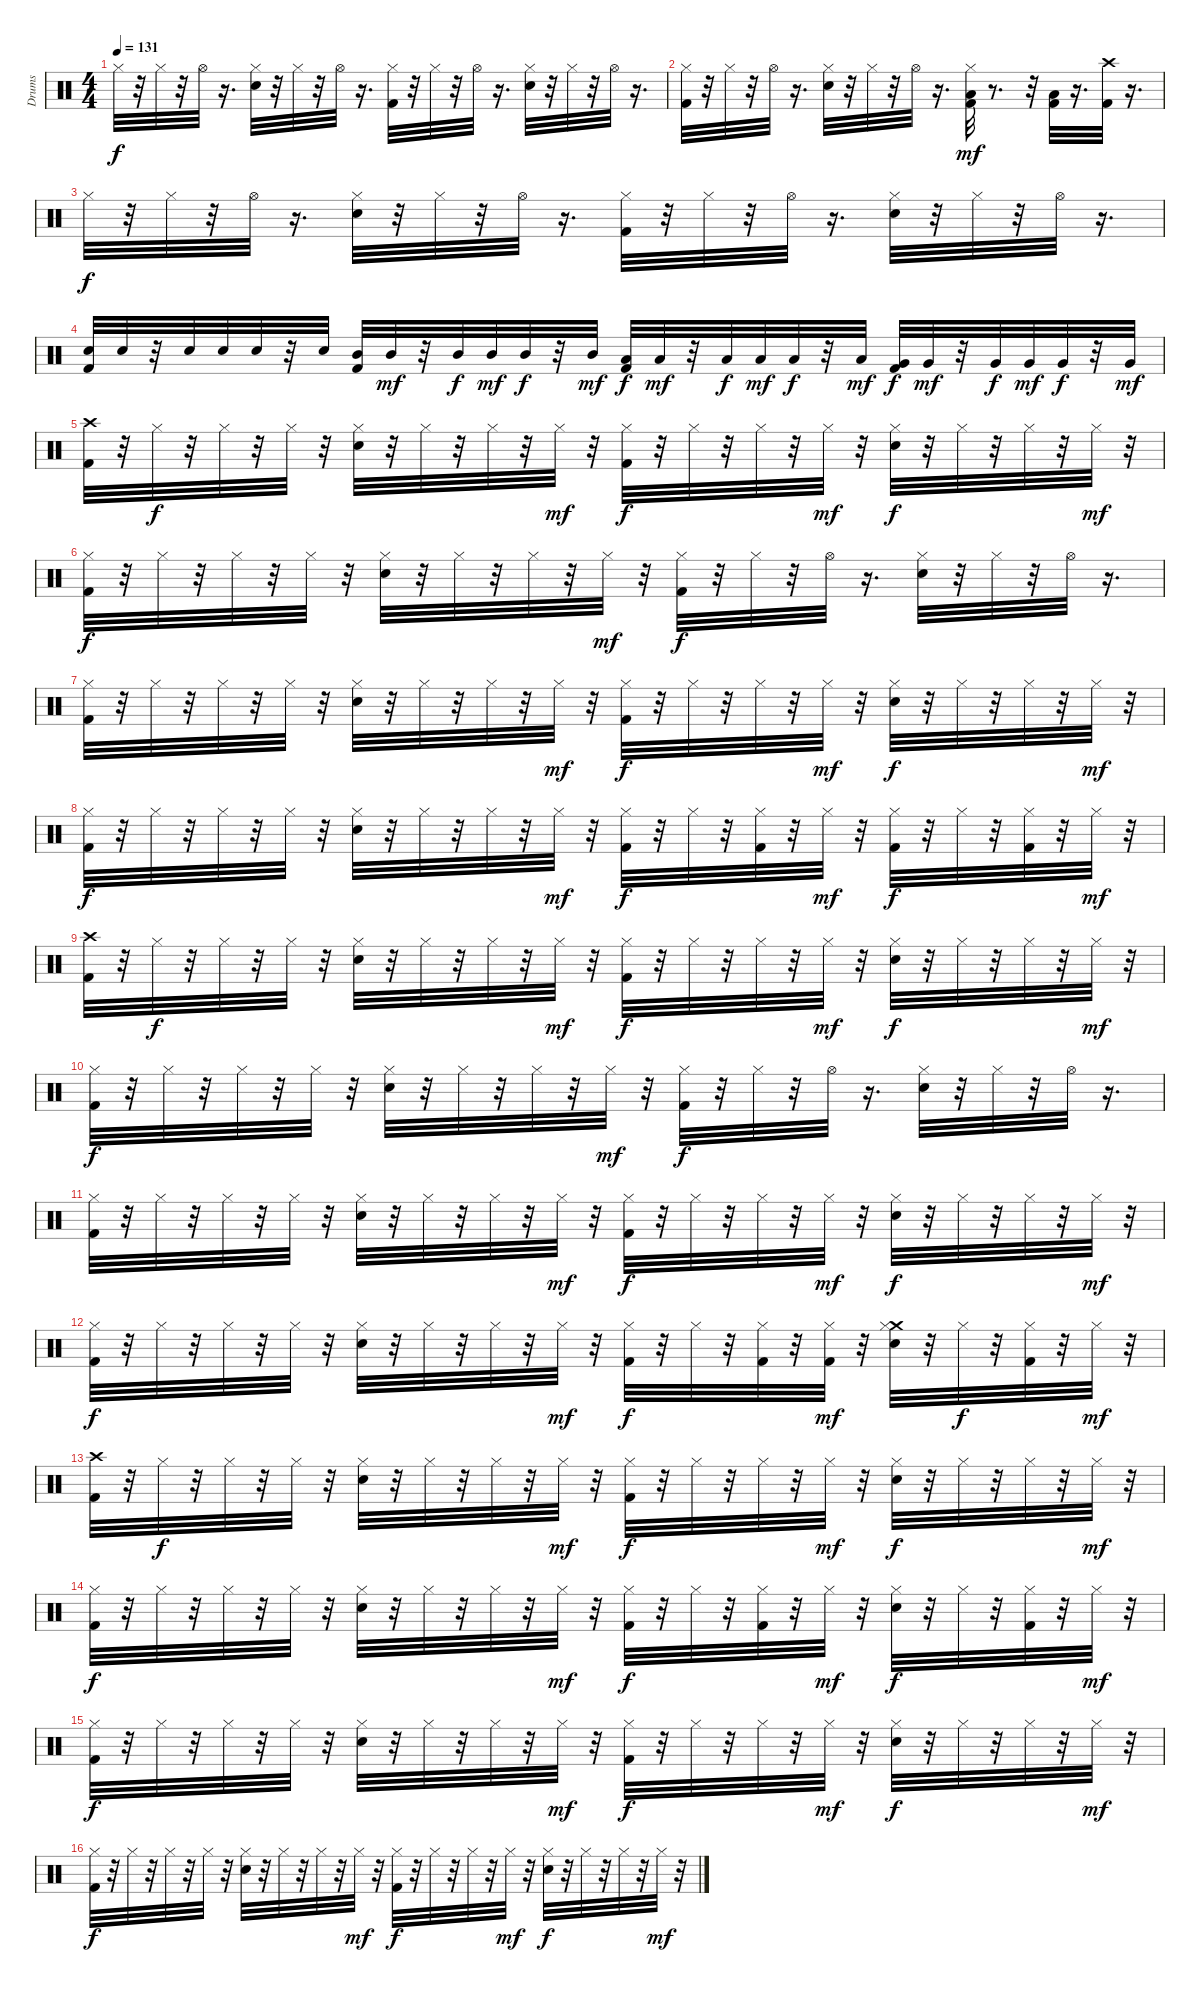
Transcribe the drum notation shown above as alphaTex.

\track ("Drums" "Drums") {instrument percussion}
\staff {score}
\articulation defaults
\ts (4 4)
\tempo 131
\clef neutral
\ks c "Hi-Hat (closed)".32{dy f}
r.32 "Hi-Hat (closed)".32 r.32 "Hi-Hat (open)".32 r.16{d} ("Hi-Hat (closed)" "Snare (hit) 2").32 r.32 "Hi-Hat (closed)".32 r.32 "Hi-Hat (open)".32 r.16{d} ("Hi-Hat (closed)" "Kick (hit) 2").32 r.32 "Hi-Hat (closed)".32 r.32 "Hi-Hat (open)".32 r.16{d} ("Snare (hit) 2" "Hi-Hat (closed)").32 r.32 "Hi-Hat (closed)".32 r.32 "Hi-Hat (open)".32 r.16{d} |
("Kick (hit) 2" "Hi-Hat (closed)").32 r.32 "Hi-Hat (closed)".32 r.32 "Hi-Hat (open)".32 r.16{d} ("Snare (hit) 2" "Hi-Hat (closed)").32 r.32 "Hi-Hat (closed)".32 r.32 "Hi-Hat (open)".32 r.16{d} ("Low Floor Tom (hit)" "Kick (hit) 2" "Hi-Hat (closed)").32{dy mf} r.8{d} r.32 ("Low Floor Tom (hit)" "Kick (hit) 2").32 r.16{d} ("Kick (hit) 2" "Crash high (hit)").32 r.16{d} |
"Hi-Hat (closed)".32{dy f} r.32 "Hi-Hat (closed)".32 r.32 "Hi-Hat (open)".32 r.16{d} ("Hi-Hat (closed)" "Snare (hit) 2").32 r.32 "Hi-Hat (closed)".32 r.32 "Hi-Hat (open)".32 r.16{d} ("Hi-Hat (closed)" "Kick (hit) 2").32 r.32 "Hi-Hat (closed)".32 r.32 "Hi-Hat (open)".32 r.16{d} ("Snare (hit) 2" "Hi-Hat (closed)").32 r.32 "Hi-Hat (closed)".32 r.32 "Hi-Hat (open)".32 r.16{d} |
("Snare (hit) 2" "Kick (hit) 2").32 "Snare (hit) 2".32 r.32 "Snare (hit) 2".32 "Snare (hit) 2".32 "Snare (hit) 2".32 r.32 "Snare (hit) 2".32 ("Kick (hit) 2" "Mid Tom (hit)").32 "Mid Tom (hit)".32{dy mf} r.32 "Mid Tom (hit)".32{dy f} "Mid Tom (hit)".32{dy mf} "Mid Tom (hit)".32{dy f} r.32 "Mid Tom (hit)".32{dy mf} ("Kick (hit) 2" "Low Tom (hit)").32{dy f} "Low Tom (hit)".32{dy mf} r.32 "Low Tom (hit)".32{dy f} "Low Tom (hit)".32{dy mf} "Low Tom (hit)".32{dy f} r.32 "Low Tom (hit)".32{dy mf} ("Kick (hit) 2" "Very Low Tom (hit)").32{dy f} "Very Low Tom (hit)".32{dy mf} r.32 "Very Low Tom (hit)".32{dy f} "Very Low Tom (hit)".32{dy mf} "Very Low Tom (hit)".32{dy f} r.32 "Very Low Tom (hit)".32{dy mf} |
("Crash high (hit)" "Kick (hit) 2").32 r.32 "Hi-Hat (closed)".32{dy f} r.32 "Hi-Hat (closed)".32 r.32 "Hi-Hat (closed)".32 r.32 ("Hi-Hat (closed)" "Snare (hit) 2").32 r.32 "Hi-Hat (closed)".32 r.32 "Hi-Hat (closed)".32 r.32 "Hi-Hat (closed)".32{dy mf} r.32 ("Hi-Hat (closed)" "Kick (hit) 2").32{dy f} r.32 "Hi-Hat (closed)".32 r.32 "Hi-Hat (closed)".32 r.32 "Hi-Hat (closed)".32{dy mf} r.32 ("Hi-Hat (closed)" "Snare (hit) 2").32{dy f} r.32 "Hi-Hat (closed)".32 r.32 "Hi-Hat (closed)".32 r.32 "Hi-Hat (closed)".32{dy mf} r.32 |
("Kick (hit) 2" "Hi-Hat (closed)").32{dy f} r.32 "Hi-Hat (closed)".32 r.32 "Hi-Hat (closed)".32 r.32 "Hi-Hat (closed)".32 r.32 ("Snare (hit) 2" "Hi-Hat (closed)").32 r.32 "Hi-Hat (closed)".32 r.32 "Hi-Hat (closed)".32 r.32 "Hi-Hat (closed)".32{dy mf} r.32 ("Kick (hit) 2" "Hi-Hat (closed)").32{dy f} r.32 "Hi-Hat (closed)".32 r.32 "Hi-Hat (open)".32 r.16{d} ("Snare (hit) 2" "Hi-Hat (closed)").32 r.32 "Hi-Hat (closed)".32 r.32 "Hi-Hat (open)".32 r.16{d} |
("Kick (hit) 2" "Hi-Hat (closed)").32 r.32 "Hi-Hat (closed)".32 r.32 "Hi-Hat (closed)".32 r.32 "Hi-Hat (closed)".32 r.32 ("Hi-Hat (closed)" "Snare (hit) 2").32 r.32 "Hi-Hat (closed)".32 r.32 "Hi-Hat (closed)".32 r.32 "Hi-Hat (closed)".32{dy mf} r.32 ("Hi-Hat (closed)" "Kick (hit) 2").32{dy f} r.32 "Hi-Hat (closed)".32 r.32 "Hi-Hat (closed)".32 r.32 "Hi-Hat (closed)".32{dy mf} r.32 ("Hi-Hat (closed)" "Snare (hit) 2").32{dy f} r.32 "Hi-Hat (closed)".32 r.32 "Hi-Hat (closed)".32 r.32 "Hi-Hat (closed)".32{dy mf} r.32 |
("Kick (hit) 2" "Hi-Hat (closed)").32{dy f} r.32 "Hi-Hat (closed)".32 r.32 "Hi-Hat (closed)".32 r.32 "Hi-Hat (closed)".32 r.32 ("Hi-Hat (closed)" "Snare (hit) 2").32 r.32 "Hi-Hat (closed)".32 r.32 "Hi-Hat (closed)".32 r.32 "Hi-Hat (closed)".32{dy mf} r.32 ("Hi-Hat (closed)" "Kick (hit) 2").32{dy f} r.32 "Hi-Hat (closed)".32 r.32 ("Kick (hit) 2" "Hi-Hat (closed)").32 r.32 "Hi-Hat (closed)".32{dy mf} r.32 ("Hi-Hat (closed)" "Kick (hit) 2").32{dy f} r.32 "Hi-Hat (closed)".32 r.32 ("Kick (hit) 2" "Hi-Hat (closed)").32 r.32 "Hi-Hat (closed)".32{dy mf} r.32 |
("Crash high (hit)" "Kick (hit) 2").32 r.32 "Hi-Hat (closed)".32{dy f} r.32 "Hi-Hat (closed)".32 r.32 "Hi-Hat (closed)".32 r.32 ("Hi-Hat (closed)" "Snare (hit) 2").32 r.32 "Hi-Hat (closed)".32 r.32 "Hi-Hat (closed)".32 r.32 "Hi-Hat (closed)".32{dy mf} r.32 ("Hi-Hat (closed)" "Kick (hit) 2").32{dy f} r.32 "Hi-Hat (closed)".32 r.32 "Hi-Hat (closed)".32 r.32 "Hi-Hat (closed)".32{dy mf} r.32 ("Hi-Hat (closed)" "Snare (hit) 2").32{dy f} r.32 "Hi-Hat (closed)".32 r.32 "Hi-Hat (closed)".32 r.32 "Hi-Hat (closed)".32{dy mf} r.32 |
("Kick (hit) 2" "Hi-Hat (closed)").32{dy f} r.32 "Hi-Hat (closed)".32 r.32 "Hi-Hat (closed)".32 r.32 "Hi-Hat (closed)".32 r.32 ("Snare (hit) 2" "Hi-Hat (closed)").32 r.32 "Hi-Hat (closed)".32 r.32 "Hi-Hat (closed)".32 r.32 "Hi-Hat (closed)".32{dy mf} r.32 ("Kick (hit) 2" "Hi-Hat (closed)").32{dy f} r.32 "Hi-Hat (closed)".32 r.32 "Hi-Hat (open)".32 r.16{d} ("Snare (hit) 2" "Hi-Hat (closed)").32 r.32 "Hi-Hat (closed)".32 r.32 "Hi-Hat (open)".32 r.16{d} |
("Kick (hit) 2" "Hi-Hat (closed)").32 r.32 "Hi-Hat (closed)".32 r.32 "Hi-Hat (closed)".32 r.32 "Hi-Hat (closed)".32 r.32 ("Hi-Hat (closed)" "Snare (hit) 2").32 r.32 "Hi-Hat (closed)".32 r.32 "Hi-Hat (closed)".32 r.32 "Hi-Hat (closed)".32{dy mf} r.32 ("Hi-Hat (closed)" "Kick (hit) 2").32{dy f} r.32 "Hi-Hat (closed)".32 r.32 "Hi-Hat (closed)".32 r.32 "Hi-Hat (closed)".32{dy mf} r.32 ("Hi-Hat (closed)" "Snare (hit) 2").32{dy f} r.32 "Hi-Hat (closed)".32 r.32 "Hi-Hat (closed)".32 r.32 "Hi-Hat (closed)".32{dy mf} r.32 |
("Kick (hit) 2" "Hi-Hat (closed)").32{dy f} r.32 "Hi-Hat (closed)".32 r.32 "Hi-Hat (closed)".32 r.32 "Hi-Hat (closed)".32 r.32 ("Hi-Hat (closed)" "Snare (hit) 2").32 r.32 "Hi-Hat (closed)".32 r.32 "Hi-Hat (closed)".32 r.32 "Hi-Hat (closed)".32{dy mf} r.32 ("Hi-Hat (closed)" "Kick (hit) 2").32{dy f} r.32 "Hi-Hat (closed)".32 r.32 ("Kick (hit) 2" "Hi-Hat (closed)").32 r.32 ("Kick (hit) 2" "Hi-Hat (closed)").32{dy mf} r.32 ("Crash medium (hit)" "Hi-Hat (closed)" "Snare (hit) 2").32 r.32 "Hi-Hat (closed)".32{dy f} r.32 ("Kick (hit) 2" "Hi-Hat (closed)").32 r.32 "Hi-Hat (closed)".32{dy mf} r.32 |
("Crash high (hit)" "Kick (hit) 2").32 r.32 "Hi-Hat (closed)".32{dy f} r.32 "Hi-Hat (closed)".32 r.32 "Hi-Hat (closed)".32 r.32 ("Hi-Hat (closed)" "Snare (hit) 2").32 r.32 "Hi-Hat (closed)".32 r.32 "Hi-Hat (closed)".32 r.32 "Hi-Hat (closed)".32{dy mf} r.32 ("Hi-Hat (closed)" "Kick (hit) 2").32{dy f} r.32 "Hi-Hat (closed)".32 r.32 "Hi-Hat (closed)".32 r.32 "Hi-Hat (closed)".32{dy mf} r.32 ("Hi-Hat (closed)" "Snare (hit) 2").32{dy f} r.32 "Hi-Hat (closed)".32 r.32 "Hi-Hat (closed)".32 r.32 "Hi-Hat (closed)".32{dy mf} r.32 |
("Kick (hit) 2" "Hi-Hat (closed)").32{dy f} r.32 "Hi-Hat (closed)".32 r.32 "Hi-Hat (closed)".32 r.32 "Hi-Hat (closed)".32 r.32 ("Hi-Hat (closed)" "Snare (hit) 2").32 r.32 "Hi-Hat (closed)".32 r.32 "Hi-Hat (closed)".32 r.32 "Hi-Hat (closed)".32{dy mf} r.32 ("Hi-Hat (closed)" "Kick (hit) 2").32{dy f} r.32 "Hi-Hat (closed)".32 r.32 ("Kick (hit) 2" "Hi-Hat (closed)").32 r.32 "Hi-Hat (closed)".32{dy mf} r.32 ("Hi-Hat (closed)" "Snare (hit) 2").32{dy f} r.32 "Hi-Hat (closed)".32 r.32 ("Kick (hit) 2" "Hi-Hat (closed)").32 r.32 "Hi-Hat (closed)".32{dy mf} r.32 |
("Kick (hit) 2" "Hi-Hat (closed)").32{dy f} r.32 "Hi-Hat (closed)".32 r.32 "Hi-Hat (closed)".32 r.32 "Hi-Hat (closed)".32 r.32 ("Hi-Hat (closed)" "Snare (hit) 2").32 r.32 "Hi-Hat (closed)".32 r.32 "Hi-Hat (closed)".32 r.32 "Hi-Hat (closed)".32{dy mf} r.32 ("Hi-Hat (closed)" "Kick (hit) 2").32{dy f} r.32 "Hi-Hat (closed)".32 r.32 "Hi-Hat (closed)".32 r.32 "Hi-Hat (closed)".32{dy mf} r.32 ("Hi-Hat (closed)" "Snare (hit) 2").32{dy f} r.32 "Hi-Hat (closed)".32 r.32 "Hi-Hat (closed)".32 r.32 "Hi-Hat (closed)".32{dy mf} r.32 |
("Kick (hit) 2" "Hi-Hat (closed)").32{dy f} r.32 "Hi-Hat (closed)".32 r.32 "Hi-Hat (closed)".32 r.32 "Hi-Hat (closed)".32 r.32 ("Hi-Hat (closed)" "Snare (hit) 2").32 r.32 "Hi-Hat (closed)".32 r.32 "Hi-Hat (closed)".32 r.32 "Hi-Hat (closed)".32{dy mf} r.32 ("Hi-Hat (closed)" "Kick (hit) 2").32{dy f} r.32 "Hi-Hat (closed)".32 r.32 "Hi-Hat (closed)".32 r.32 "Hi-Hat (closed)".32{dy mf} r.32 ("Hi-Hat (closed)" "Snare (hit) 2").32{dy f} r.32 "Hi-Hat (closed)".32 r.32 "Hi-Hat (closed)".32 r.32 "Hi-Hat (closed)".32{dy mf} r.32
